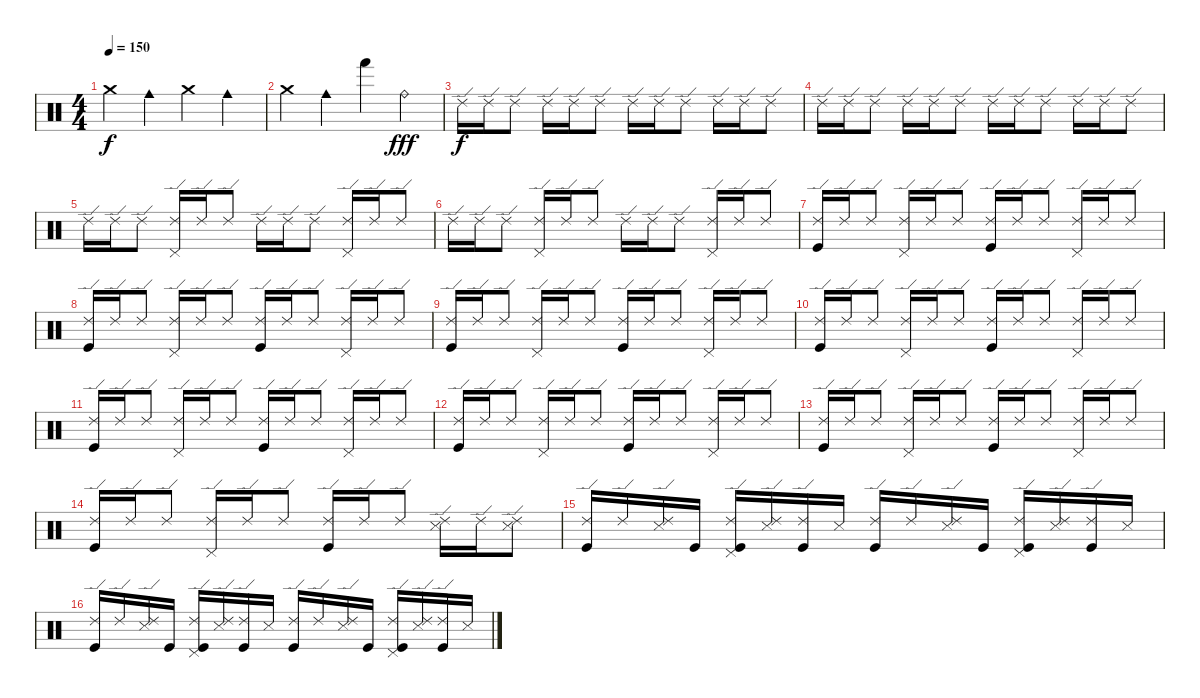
\track "" {instrument percussion}
\staff {score}
\articulation defaults
\ts (4 4)
\tempo 150
\clef neutral
\ks c "Crash medium (hit)".4{dy f} "Cowbell medium (hit)".4 "Crash medium (hit)".4 "Cowbell medium (hit)".4
|
"Crash medium (hit)".4 "Cowbell medium (hit)".4 "Hand (hit)".4 "Ride (bell)".4{dy fff volume 16} |
"Ride (edge) 2".16{dy f volume 16} "Ride (edge) 2".16 "Ride (edge) 2".8 "Ride (edge) 2".16 "Ride (edge) 2".16 "Ride (edge) 2".8 "Ride (edge) 2".16 "Ride (edge) 2".16 "Ride (edge) 2".8 "Ride (edge) 2".16 "Ride (edge) 2".16 "Ride (edge) 2".8 |
"Ride (edge) 2".16 "Ride (edge) 2".16 "Ride (edge) 2".8 "Ride (edge) 2".16 "Ride (edge) 2".16 "Ride (edge) 2".8 "Ride (edge) 2".16 "Ride (edge) 2".16 "Ride (edge) 2".8 "Ride (edge) 2".16 "Ride (edge) 2".16 "Ride (edge) 2".8 |
"Ride (edge) 2".16 "Ride (edge) 2".16 "Ride (edge) 2".8 ("Ride (edge) 2" "Pedal Hi-Hat (hit)").16 "Ride (edge) 2".16 "Ride (edge) 2".8 "Ride (edge) 2".16 "Ride (edge) 2".16 "Ride (edge) 2".8 ("Ride (edge) 2" "Pedal Hi-Hat (hit)").16 "Ride (edge) 2".16 "Ride (edge) 2".8 |
"Ride (edge) 2".16 "Ride (edge) 2".16 "Ride (edge) 2".8 ("Ride (edge) 2" "Pedal Hi-Hat (hit)").16 "Ride (edge) 2".16 "Ride (edge) 2".8 "Ride (edge) 2".16 "Ride (edge) 2".16 "Ride (edge) 2".8 ("Ride (edge) 2" "Pedal Hi-Hat (hit)").16 "Ride (edge) 2".16 "Ride (edge) 2".8 |
("Ride (edge) 2" "Kick (hit)").16 "Ride (edge) 2".16 "Ride (edge) 2".8 ("Ride (edge) 2" "Pedal Hi-Hat (hit)").16 "Ride (edge) 2".16 "Ride (edge) 2".8 ("Ride (edge) 2" "Kick (hit)").16 "Ride (edge) 2".16 "Ride (edge) 2".8 ("Ride (edge) 2" "Pedal Hi-Hat (hit)").16 "Ride (edge) 2".16 "Ride (edge) 2".8 |
("Ride (edge) 2" "Kick (hit)").16 "Ride (edge) 2".16 "Ride (edge) 2".8 ("Ride (edge) 2" "Pedal Hi-Hat (hit)").16 "Ride (edge) 2".16 "Ride (edge) 2".8 ("Ride (edge) 2" "Kick (hit)").16 "Ride (edge) 2".16 "Ride (edge) 2".8 ("Ride (edge) 2" "Pedal Hi-Hat (hit)").16 "Ride (edge) 2".16 "Ride (edge) 2".8 |
("Ride (edge) 2" "Kick (hit)").16 "Ride (edge) 2".16 "Ride (edge) 2".8 ("Ride (edge) 2" "Pedal Hi-Hat (hit)").16 "Ride (edge) 2".16 "Ride (edge) 2".8 ("Ride (edge) 2" "Kick (hit)").16 "Ride (edge) 2".16 "Ride (edge) 2".8 ("Ride (edge) 2" "Pedal Hi-Hat (hit)").16 "Ride (edge) 2".16 "Ride (edge) 2".8 |
("Ride (edge) 2" "Kick (hit)").16 "Ride (edge) 2".16 "Ride (edge) 2".8 ("Ride (edge) 2" "Pedal Hi-Hat (hit)").16 "Ride (edge) 2".16 "Ride (edge) 2".8 ("Ride (edge) 2" "Kick (hit)").16 "Ride (edge) 2".16 "Ride (edge) 2".8 ("Ride (edge) 2" "Pedal Hi-Hat (hit)").16 "Ride (edge) 2".16 "Ride (edge) 2".8 |
("Ride (edge) 2" "Kick (hit)").16 "Ride (edge) 2".16 "Ride (edge) 2".8 ("Ride (edge) 2" "Pedal Hi-Hat (hit)").16 "Ride (edge) 2".16 "Ride (edge) 2".8 ("Ride (edge) 2" "Kick (hit)").16 "Ride (edge) 2".16 "Ride (edge) 2".8 ("Ride (edge) 2" "Pedal Hi-Hat (hit)").16 "Ride (edge) 2".16 "Ride (edge) 2".8 |
("Ride (edge) 2" "Kick (hit)").16 "Ride (edge) 2".16 "Ride (edge) 2".8 ("Ride (edge) 2" "Pedal Hi-Hat (hit)").16 "Ride (edge) 2".16 "Ride (edge) 2".8 ("Ride (edge) 2" "Kick (hit)").16 "Ride (edge) 2".16 "Ride (edge) 2".8 ("Ride (edge) 2" "Pedal Hi-Hat (hit)").16 "Ride (edge) 2".16 "Ride (edge) 2".8 |
("Ride (edge) 2" "Kick (hit)").16 "Ride (edge) 2".16 "Ride (edge) 2".8 ("Ride (edge) 2" "Pedal Hi-Hat (hit)").16 "Ride (edge) 2".16 "Ride (edge) 2".8 ("Ride (edge) 2" "Kick (hit)").16 "Ride (edge) 2".16 "Ride (edge) 2".8 ("Ride (edge) 2" "Pedal Hi-Hat (hit)").16 "Ride (edge) 2".16 "Ride (edge) 2".8 |
("Ride (edge) 2" "Kick (hit)").16 "Ride (edge) 2".16 "Ride (edge) 2".8 ("Ride (edge) 2" "Pedal Hi-Hat (hit)").16 "Ride (edge) 2".16 "Ride (edge) 2".8 ("Ride (edge) 2" "Kick (hit)").16 "Ride (edge) 2".16 "Ride (edge) 2".8 ("Ride (edge) 2" "Snare (side stick) 3").16 "Ride (edge) 2".16 ("Ride (edge) 2" "Snare (side stick) 3").8 |
("Ride (edge) 2" "Kick (hit)").16 "Ride (edge) 2".16 ("Ride (edge) 2" "Snare (side stick) 3").16 "Kick (hit)".16 ("Ride (edge) 2" "Pedal Hi-Hat (hit)" "Kick (hit)").16 ("Ride (edge) 2" "Snare (side stick) 3").16 ("Ride (edge) 2" "Kick (hit)").16 "Snare (side stick) 3".16 ("Ride (edge) 2" "Kick (hit)").16 "Ride (edge) 2".16 ("Ride (edge) 2" "Snare (side stick) 3").16 "Kick (hit)".16 ("Ride (edge) 2" "Pedal Hi-Hat (hit)" "Kick (hit)").16 ("Ride (edge) 2" "Snare (side stick) 3").16 ("Ride (edge) 2" "Kick (hit)").16 "Snare (side stick) 3".16 |
("Ride (edge) 2" "Kick (hit)").16 "Ride (edge) 2".16 ("Ride (edge) 2" "Snare (side stick) 3").16 "Kick (hit)".16 ("Ride (edge) 2" "Pedal Hi-Hat (hit)" "Kick (hit)").16 ("Ride (edge) 2" "Snare (side stick) 3").16 ("Ride (edge) 2" "Kick (hit)").16 "Snare (side stick) 3".16 ("Ride (edge) 2" "Kick (hit)").16 "Ride (edge) 2".16 ("Ride (edge) 2" "Snare (side stick) 3").16 "Kick (hit)".16 ("Ride (edge) 2" "Pedal Hi-Hat (hit)" "Kick (hit)").16 ("Ride (edge) 2" "Snare (side stick) 3").16 ("Ride (edge) 2" "Kick (hit)").16 "Snare (side stick) 3".16
